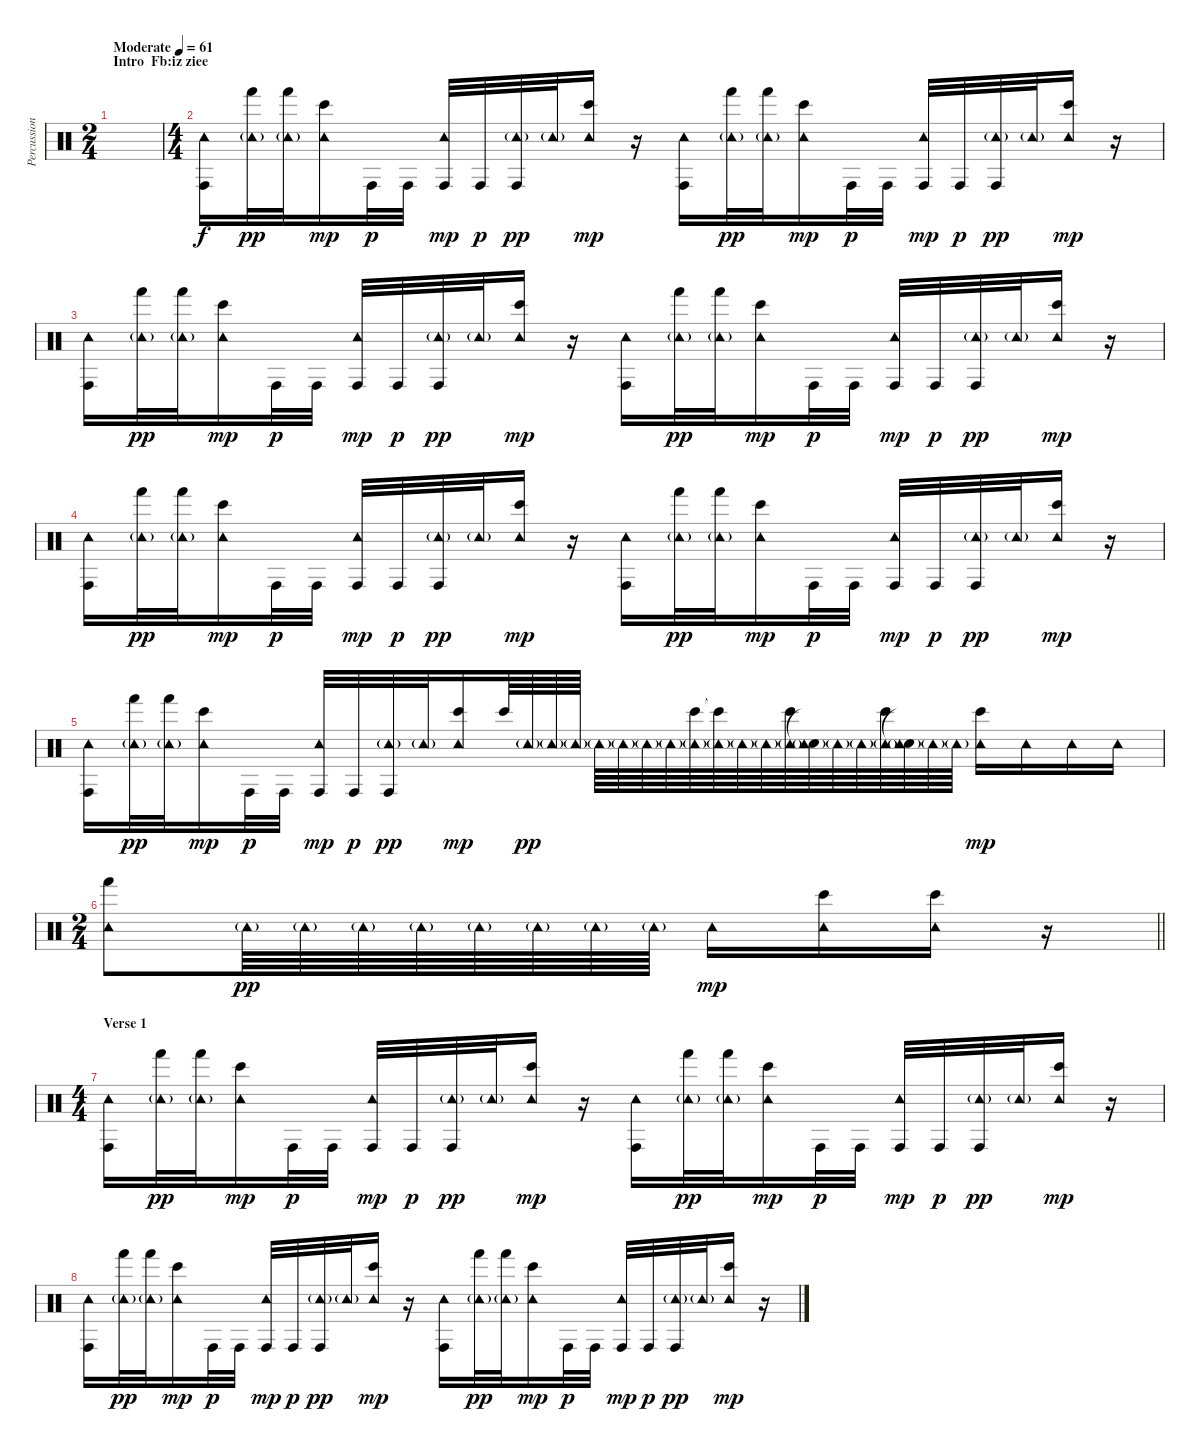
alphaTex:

\track ("Percussion 2" "Percussion") {instrument percussion}
\staff {score}
\articulation defaults
\ts (2 4)
\section ("" "Intro  Fb:iz ziee")
\tempo (61 "Moderate")
\clef neutral
\ks c
|
\ts (4 4)
("Conga high (hit)" "Tambourine (hit)").16 ("Hand (hit)" "Tambourine (hit)"{g}).32{dy pp} ("Hand (hit)" "Tambourine (hit)"{g}).32 ("Bongo High (hit)" "Tambourine (hit)").16{dy mp} "Conga high (hit)".32{dy p} "Conga high (hit)".32 ("Conga high (hit)" "Tambourine (hit)").32{dy mp} "Conga high (hit)".32{dy p} ("Conga high (hit)" "Tambourine (hit)"{g}).32{dy pp} "Tambourine (hit)"{g}.32 ("Bongo High (hit)" "Tambourine (hit)").16{dy mp} r.16 ("Conga high (hit)" "Tambourine (hit)").16 ("Hand (hit)" "Tambourine (hit)"{g}).32{dy pp} ("Hand (hit)" "Tambourine (hit)"{g}).32 ("Bongo High (hit)" "Tambourine (hit)").16{dy mp} "Conga high (hit)".32{dy p} "Conga high (hit)".32 ("Conga high (hit)" "Tambourine (hit)").32{dy mp} "Conga high (hit)".32{dy p} ("Conga high (hit)" "Tambourine (hit)"{g}).32{dy pp} "Tambourine (hit)"{g}.32 ("Bongo High (hit)" "Tambourine (hit)").16{dy mp} r.16 |
("Conga high (hit)" "Tambourine (hit)").16 ("Hand (hit)" "Tambourine (hit)"{g}).32{dy pp} ("Hand (hit)" "Tambourine (hit)"{g}).32 ("Bongo High (hit)" "Tambourine (hit)").16{dy mp} "Conga high (hit)".32{dy p} "Conga high (hit)".32 ("Conga high (hit)" "Tambourine (hit)").32{dy mp} "Conga high (hit)".32{dy p} ("Conga high (hit)" "Tambourine (hit)"{g}).32{dy pp} "Tambourine (hit)"{g}.32 ("Bongo High (hit)" "Tambourine (hit)").16{dy mp} r.16 ("Conga high (hit)" "Tambourine (hit)").16 ("Hand (hit)" "Tambourine (hit)"{g}).32{dy pp} ("Hand (hit)" "Tambourine (hit)"{g}).32 ("Bongo High (hit)" "Tambourine (hit)").16{dy mp} "Conga high (hit)".32{dy p} "Conga high (hit)".32 ("Conga high (hit)" "Tambourine (hit)").32{dy mp} "Conga high (hit)".32{dy p} ("Conga high (hit)" "Tambourine (hit)"{g}).32{dy pp} "Tambourine (hit)"{g}.32 ("Bongo High (hit)" "Tambourine (hit)").16{dy mp} r.16 |
("Conga high (hit)" "Tambourine (hit)").16 ("Hand (hit)" "Tambourine (hit)"{g}).32{dy pp} ("Hand (hit)" "Tambourine (hit)"{g}).32 ("Bongo High (hit)" "Tambourine (hit)").16{dy mp} "Conga high (hit)".32{dy p} "Conga high (hit)".32 ("Conga high (hit)" "Tambourine (hit)").32{dy mp} "Conga high (hit)".32{dy p} ("Conga high (hit)" "Tambourine (hit)"{g}).32{dy pp} "Tambourine (hit)"{g}.32 ("Bongo High (hit)" "Tambourine (hit)").16{dy mp} r.16 ("Conga high (hit)" "Tambourine (hit)").16 ("Hand (hit)" "Tambourine (hit)"{g}).32{dy pp} ("Hand (hit)" "Tambourine (hit)"{g}).32 ("Bongo High (hit)" "Tambourine (hit)").16{dy mp} "Conga high (hit)".32{dy p} "Conga high (hit)".32 ("Conga high (hit)" "Tambourine (hit)").32{dy mp} "Conga high (hit)".32{dy p} ("Conga high (hit)" "Tambourine (hit)"{g}).32{dy pp} "Tambourine (hit)"{g}.32 ("Bongo High (hit)" "Tambourine (hit)").16{dy mp} r.16 |
("Conga high (hit)" "Tambourine (hit)").16 ("Hand (hit)" "Tambourine (hit)"{g}).32{dy pp} ("Hand (hit)" "Tambourine (hit)"{g}).32 ("Bongo High (hit)" "Tambourine (hit)").16{dy mp} "Conga high (hit)".32{dy p} "Conga high (hit)".32 ("Conga high (hit)" "Tambourine (hit)").32{dy mp} "Conga high (hit)".32{dy p} ("Conga high (hit)" "Tambourine (hit)"{g}).32{dy pp} "Tambourine (hit)"{g}.32 ("Bongo High (hit)" "Tambourine (hit)").16{dy mp} "Bongo High (hit)".64 "Tambourine (hit)"{g}.64{dy pp} "Tambourine (hit)"{g}.64 "Tambourine (hit)"{g}.64 "Tambourine (hit)"{g}.64 "Tambourine (hit)"{g}.64 "Tambourine (hit)"{g}.64 "Tambourine (hit)"{g}.64 ("Bongo High (hit)" "Tambourine (hit)"{g}).64 ("Bongo High (hit)"{t} "Tambourine (hit)"{g}).64 "Tambourine (hit)"{g}.64 "Tambourine (hit)"{g}.64 ("Bongo High (hit)" "Tambourine (hit)"{g}).64 ("Snare (hit)"{t} "Tambourine (hit)"{g}).64 "Tambourine (hit)"{g}.64 "Tambourine (hit)"{g}.64 ("Bongo High (hit)" "Tambourine (hit)"{g}).64 ("Snare (hit)"{t} "Tambourine (hit)"{g}).64 "Tambourine (hit)"{g}.64 "Tambourine (hit)"{g}.64 ("Bongo High (hit)" "Tambourine (hit)").16{dy mp} "Tambourine (hit)".16 "Tambourine (hit)".16 "Tambourine (hit)".16 |
\ts (2 4)
\barLineRight lightlight
("Hand (hit)" "Tambourine (hit)").8 "Tambourine (hit)"{g}.64{dy pp} "Tambourine (hit)"{g}.64 "Tambourine (hit)"{g}.64 "Tambourine (hit)"{g}.64 "Tambourine (hit)"{g}.64 "Tambourine (hit)"{g}.64 "Tambourine (hit)"{g}.64 "Tambourine (hit)"{g}.64 "Tambourine (hit)".16{dy mp} ("Bongo High (hit)" "Tambourine (hit)").16 ("Bongo High (hit)" "Tambourine (hit)").16 r.16 |
\ts (4 4)
\section ("" "Verse 1")
("Conga high (hit)" "Tambourine (hit)").16 ("Hand (hit)" "Tambourine (hit)"{g}).32{dy pp} ("Hand (hit)" "Tambourine (hit)"{g}).32 ("Bongo High (hit)" "Tambourine (hit)").16{dy mp} "Conga high (hit)".32{dy p} "Conga high (hit)".32 ("Conga high (hit)" "Tambourine (hit)").32{dy mp} "Conga high (hit)".32{dy p} ("Conga high (hit)" "Tambourine (hit)"{g}).32{dy pp} "Tambourine (hit)"{g}.32 ("Bongo High (hit)" "Tambourine (hit)").16{dy mp} r.16 ("Conga high (hit)" "Tambourine (hit)").16 ("Hand (hit)" "Tambourine (hit)"{g}).32{dy pp} ("Hand (hit)" "Tambourine (hit)"{g}).32 ("Bongo High (hit)" "Tambourine (hit)").16{dy mp} "Conga high (hit)".32{dy p} "Conga high (hit)".32 ("Conga high (hit)" "Tambourine (hit)").32{dy mp} "Conga high (hit)".32{dy p} ("Conga high (hit)" "Tambourine (hit)"{g}).32{dy pp} "Tambourine (hit)"{g}.32 ("Bongo High (hit)" "Tambourine (hit)").16{dy mp} r.16 |
("Conga high (hit)" "Tambourine (hit)").16 ("Hand (hit)" "Tambourine (hit)"{g}).32{dy pp} ("Hand (hit)" "Tambourine (hit)"{g}).32 ("Bongo High (hit)" "Tambourine (hit)").16{dy mp} "Conga high (hit)".32{dy p} "Conga high (hit)".32 ("Conga high (hit)" "Tambourine (hit)").32{dy mp} "Conga high (hit)".32{dy p} ("Conga high (hit)" "Tambourine (hit)"{g}).32{dy pp} "Tambourine (hit)"{g}.32 ("Bongo High (hit)" "Tambourine (hit)").16{dy mp} r.16 ("Conga high (hit)" "Tambourine (hit)").16 ("Hand (hit)" "Tambourine (hit)"{g}).32{dy pp} ("Hand (hit)" "Tambourine (hit)"{g}).32 ("Bongo High (hit)" "Tambourine (hit)").16{dy mp} "Conga high (hit)".32{dy p} "Conga high (hit)".32 ("Conga high (hit)" "Tambourine (hit)").32{dy mp} "Conga high (hit)".32{dy p} ("Conga high (hit)" "Tambourine (hit)"{g}).32{dy pp} "Tambourine (hit)"{g}.32 ("Bongo High (hit)" "Tambourine (hit)").16{dy mp} r.16
